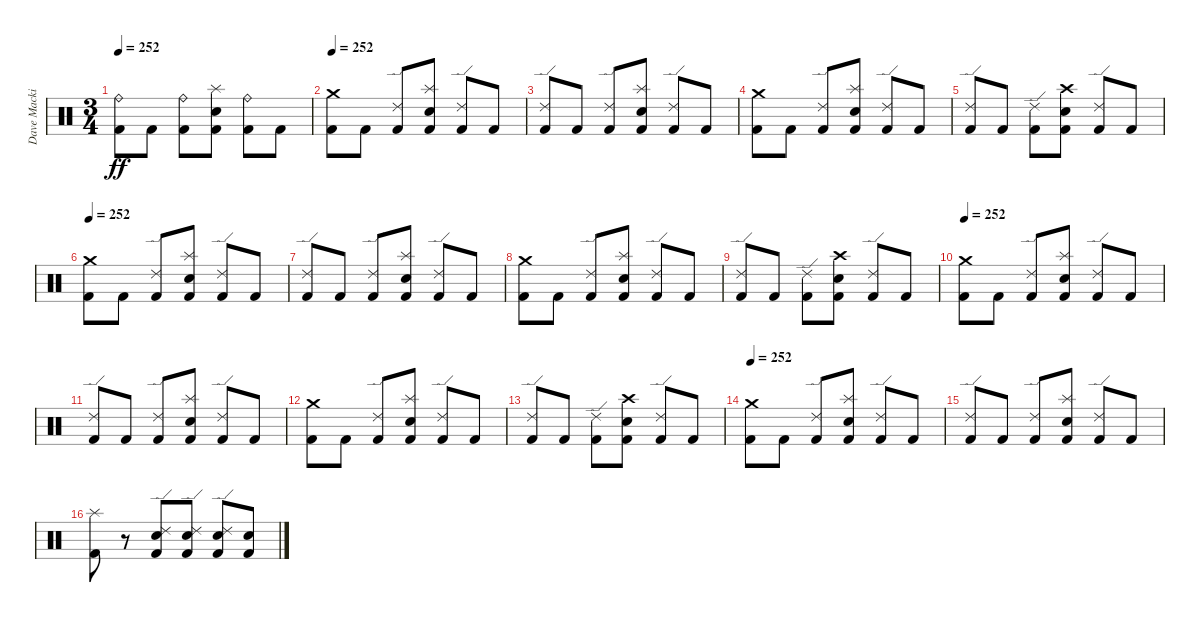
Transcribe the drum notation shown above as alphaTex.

\track ("Dave Mackintosh" "Dave Macki") {instrument percussion}
\staff {score}
\articulation defaults
\ts (3 4)
\tempo 252
\clef neutral
\ks c
("Ride (bell)" "Kick (hit) 2").8{dy ff} "Kick (hit) 2".8 ("Ride (bell)" "Kick (hit) 2").8 ("Splash (hit)" "Electric Snare (hit)" "Kick (hit) 2").8 ("Ride (bell)" "Kick (hit) 2").8 "Kick (hit) 2".8 |
\tempo 252
("Crash medium (hit)" "Kick (hit) 2").8 "Kick (hit) 2".8 ("Ride (edge) 2" "Kick (hit) 2").8 ("Splash (hit)" "Electric Snare (hit)" "Kick (hit) 2").8 ("Ride (edge) 2" "Kick (hit) 2").8 "Kick (hit) 2".8 |
("Ride (edge) 2" "Kick (hit) 2").8 "Kick (hit) 2".8 ("Ride (edge) 2" "Kick (hit) 2").8 ("Splash (hit)" "Electric Snare (hit)" "Kick (hit) 2").8 ("Ride (edge) 2" "Kick (hit) 2").8 "Kick (hit) 2".8 |
("Crash medium (hit)" "Kick (hit) 2").8 "Kick (hit) 2".8 ("Ride (edge) 2" "Kick (hit) 2").8 ("Splash (hit)" "Electric Snare (hit)" "Kick (hit) 2").8 ("Ride (edge) 2" "Kick (hit) 2").8 "Kick (hit) 2".8 |
("Ride (edge) 2" "Kick (hit) 2").8 "Kick (hit) 2".8 ("Ride (edge) 2" "Kick (hit) 2").8 ("Crash high (hit)" "Electric Snare (hit)" "Kick (hit) 2").8 ("Ride (edge) 2" "Kick (hit) 2").8 "Kick (hit) 2".8 |
\tempo 252
("Crash medium (hit)" "Kick (hit) 2").8 "Kick (hit) 2".8 ("Ride (edge) 2" "Kick (hit) 2").8 ("Splash (hit)" "Electric Snare (hit)" "Kick (hit) 2").8 ("Ride (edge) 2" "Kick (hit) 2").8 "Kick (hit) 2".8 |
("Ride (edge) 2" "Kick (hit) 2").8 "Kick (hit) 2".8 ("Ride (edge) 2" "Kick (hit) 2").8 ("Splash (hit)" "Electric Snare (hit)" "Kick (hit) 2").8 ("Ride (edge) 2" "Kick (hit) 2").8 "Kick (hit) 2".8 |
("Crash medium (hit)" "Kick (hit) 2").8 "Kick (hit) 2".8 ("Ride (edge) 2" "Kick (hit) 2").8 ("Splash (hit)" "Electric Snare (hit)" "Kick (hit) 2").8 ("Ride (edge) 2" "Kick (hit) 2").8 "Kick (hit) 2".8 |
("Ride (edge) 2" "Kick (hit) 2").8 "Kick (hit) 2".8 ("Ride (edge) 2" "Kick (hit) 2").8 ("Crash high (hit)" "Electric Snare (hit)" "Kick (hit) 2").8 ("Ride (edge) 2" "Kick (hit) 2").8 "Kick (hit) 2".8 |
\tempo 252
("Crash medium (hit)" "Kick (hit) 2").8 "Kick (hit) 2".8 ("Ride (edge) 2" "Kick (hit) 2").8 ("Splash (hit)" "Electric Snare (hit)" "Kick (hit) 2").8 ("Ride (edge) 2" "Kick (hit) 2").8 "Kick (hit) 2".8 |
("Ride (edge) 2" "Kick (hit) 2").8 "Kick (hit) 2".8 ("Ride (edge) 2" "Kick (hit) 2").8 ("Splash (hit)" "Electric Snare (hit)" "Kick (hit) 2").8 ("Ride (edge) 2" "Kick (hit) 2").8 "Kick (hit) 2".8 |
("Crash medium (hit)" "Kick (hit) 2").8 "Kick (hit) 2".8 ("Ride (edge) 2" "Kick (hit) 2").8 ("Splash (hit)" "Electric Snare (hit)" "Kick (hit) 2").8 ("Ride (edge) 2" "Kick (hit) 2").8 "Kick (hit) 2".8 |
("Ride (edge) 2" "Kick (hit) 2").8 "Kick (hit) 2".8 ("Ride (edge) 2" "Kick (hit) 2").8 ("Crash high (hit)" "Electric Snare (hit)" "Kick (hit) 2").8 ("Ride (edge) 2" "Kick (hit) 2").8 "Kick (hit) 2".8 |
\tempo 252
("Crash medium (hit)" "Kick (hit) 2").8 "Kick (hit) 2".8 ("Ride (edge) 2" "Kick (hit) 2").8 ("Splash (hit)" "Electric Snare (hit)" "Kick (hit) 2").8 ("Ride (edge) 2" "Kick (hit) 2").8 "Kick (hit) 2".8 |
("Ride (edge) 2" "Kick (hit) 2").8 "Kick (hit) 2".8 ("Ride (edge) 2" "Kick (hit) 2").8 ("Splash (hit)" "Electric Snare (hit)" "Kick (hit) 2").8 ("Ride (edge) 2" "Kick (hit) 2").8 "Kick (hit) 2".8 |
("Splash (hit)" "Kick (hit) 2").8 r.8 ("Ride (edge) 2" "Electric Snare (hit)" "Kick (hit) 2").8 ("Ride (edge) 2" "Electric Snare (hit)" "Kick (hit) 2").8 ("Ride (edge) 2" "Electric Snare (hit)" "Kick (hit) 2").8 ("Electric Snare (hit)" "Kick (hit) 2").8
